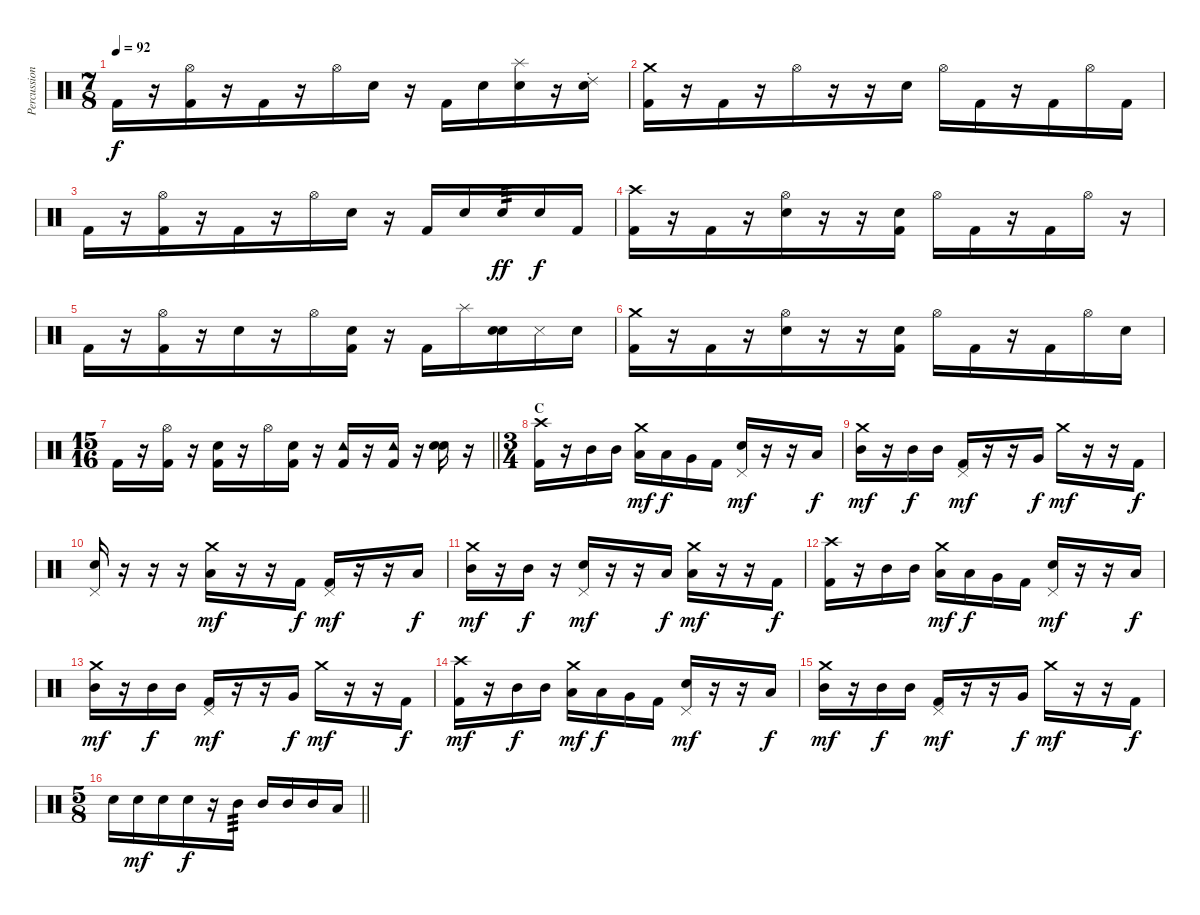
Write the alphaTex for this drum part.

\track ("Percussion" "Percussion") {instrument percussion}
\staff {score}
\articulation defaults
\ts (7 8)
\tempo 92
\clef neutral
\ks c "Kick (hit) 2".16{dy f}
r.16 ("Hi-Hat (open)" "Kick (hit) 2").16 r.16 "Kick (hit) 2".16 r.16 "Hi-Hat (open)".16 "Snare (hit) 2".16 r.16 "Kick (hit) 2".16 "Snare (hit)".16 ("Splash (hit)" "Snare (hit) 2").16 r.16 ("Ride (choke) 2" "Snare (hit) 2").16 |
("Crash medium (hit)" "Kick (hit) 2").16 r.16 "Kick (hit) 2".16 r.16 "Hi-Hat (open)".16 r.16 r.16 "Snare (hit) 2".16 "Hi-Hat (open)".16 "Kick (hit) 2".16 r.16 "Kick (hit) 2".16 "Hi-Hat (open)".16 "Kick (hit) 2".16 |
"Kick (hit) 2".16 r.16 ("Hi-Hat (open)" "Kick (hit) 2").16 r.16 "Kick (hit) 2".16 r.16 "Hi-Hat (open)".16 "Snare (hit) 2".16 r.16 "Kick (hit) 2".16 "Snare (hit)".16 "Snare (hit) 2".16{tp 3 dy ff} "Snare (hit) 2".16{dy f} "Kick (hit) 2".16 |
("Crash high (hit)" "Kick (hit) 2").16 r.16 "Kick (hit) 2".16 r.16 ("Hi-Hat (open)" "Snare (hit) 2").16 r.16 r.16 ("Snare (hit) 2" "Kick (hit) 2").16 "Hi-Hat (open)".16 "Kick (hit) 2".16 r.16 "Kick (hit) 2".16 "Hi-Hat (open)".16 r.16 |
"Kick (hit) 2".16 r.16 ("Hi-Hat (open)" "Kick (hit) 2").16 r.16 "Snare (hit) 2".16 r.16 "Hi-Hat (open)".16 ("Snare (hit) 2" "Kick (hit) 2").16 r.16 "Kick (hit) 2".16 "Splash (hit)".16 ("Snare (hit)" "Snare (hit) 2").16 "Metronome (hit)".16 "Snare (hit) 2".16 |
("Crash medium (hit)" "Kick (hit) 2").16 r.16 "Kick (hit) 2".16 r.16 ("Hi-Hat (open)" "Snare (hit) 2").16 r.16 r.16 ("Snare (hit) 2" "Kick (hit) 2").16 "Hi-Hat (open)".16 "Kick (hit) 2".16 r.16 "Kick (hit) 2".16 "Hi-Hat (open)".16 "Snare (hit) 2".16 |
\ts (15 16)
\barLineRight lightlight "Kick (hit) 2".16
r.16 ("Hi-Hat (open)" "Kick (hit) 2").16 r.16 ("Snare (hit) 2" "Kick (hit) 2").16 r.16 "Hi-Hat (open)".16 ("Snare (hit) 2" "Kick (hit) 2").16 r.16 ("Tambourine (hit)" "Kick (hit) 2").16 r.16 ("Tambourine (hit)" "Kick (hit) 2").16 r.16 ("Snare (hit)" "Snare (hit) 2").16 r.16 |
\ts (3 4)
\section ("" "C")
("Crash high (hit)" "Kick (hit) 2").16 r.16 "Mid Tom (hit)".16 "Mid Tom (hit)".16 ("Crash medium (hit)" "Low Tom (hit)").16{dy mf} "Low Tom (hit)".16{dy f} "Very Low Tom (hit)".16 "Kick (hit) 2".16 ("Pedal Hi-Hat (hit)" "Snare (hit) 2").16{dy mf} r.16 r.16 "Low Tom (hit)".16{dy f} |
("Crash medium (hit)" "Mid Tom (hit)").16{dy mf} r.16 "Mid Tom (hit)".16{dy f} "Mid Tom (hit)".16 ("Pedal Hi-Hat (hit)" "Kick (hit) 2").16{dy mf} r.16 r.16 "Very Low Tom (hit)".16{dy f} "Crash medium (hit)".16{dy mf} r.16 r.16 "Kick (hit) 2".16{dy f} |
("Pedal Hi-Hat (hit)" "Snare (hit) 2").16 r.16 r.16 r.16 ("Crash medium (hit)" "Low Tom (hit)").16{dy mf} r.16 r.16 "Kick (hit) 2".16{dy f} ("Pedal Hi-Hat (hit)" "Kick (hit) 2").16{dy mf} r.16 r.16 "Low Tom (hit)".16{dy f} |
("Crash medium (hit)" "Mid Tom (hit)").16{dy mf} r.16 "Mid Tom (hit)".16{dy f} r.16 ("Pedal Hi-Hat (hit)" "Snare (hit) 2").16{dy mf} r.16 r.16 "Low Tom (hit)".16{dy f} ("Crash medium (hit)" "Low Tom (hit)").16{dy mf} r.16 r.16 "Kick (hit) 2".16{dy f} |
("Crash high (hit)" "Kick (hit) 2").16 r.16 "Mid Tom (hit)".16 "Mid Tom (hit)".16 ("Crash medium (hit)" "Low Tom (hit)").16{dy mf} "Low Tom (hit)".16{dy f} "Very Low Tom (hit)".16 "Kick (hit) 2".16 ("Pedal Hi-Hat (hit)" "Snare (hit) 2").16{dy mf} r.16 r.16 "Low Tom (hit)".16{dy f} |
("Crash medium (hit)" "Mid Tom (hit)").16{dy mf} r.16 "Mid Tom (hit)".16{dy f} "Mid Tom (hit)".16 ("Pedal Hi-Hat (hit)" "Kick (hit) 2").16{dy mf} r.16 r.16 "Very Low Tom (hit)".16{dy f} "Crash medium (hit)".16{dy mf} r.16 r.16 "Kick (hit) 2".16{dy f} |
("Crash high (hit)" "Kick (hit) 2").16{dy mf} r.16 "Mid Tom (hit)".16{dy f} "Mid Tom (hit)".16 ("Crash medium (hit)" "Low Tom (hit)").16{dy mf} "Low Tom (hit)".16{dy f} "Very Low Tom (hit)".16 "Kick (hit) 2".16 ("Pedal Hi-Hat (hit)" "Snare (hit) 2").16{dy mf} r.16 r.16 "Low Tom (hit)".16{dy f} |
("Crash medium (hit)" "Mid Tom (hit)").16{dy mf} r.16 "Mid Tom (hit)".16{dy f} "Mid Tom (hit)".16 ("Pedal Hi-Hat (hit)" "Kick (hit) 2").16{dy mf} r.16 r.16 "Very Low Tom (hit)".16{dy f} "Crash medium (hit)".16{dy mf} r.16 r.16 "Kick (hit) 2".16{dy f} |
\ts (5 8)
\barLineRight lightlight "Snare (hit) 2".16 "Snare (hit) 2".16{dy mf} "Snare (hit) 2".16 "Snare (hit) 2".16{dy f}
r.16 "Mid Tom (hit)".16{tp 3} "Mid Tom (hit)".16 "Mid Tom (hit)".16 "Mid Tom (hit)".16 "Low Tom (hit)".16
